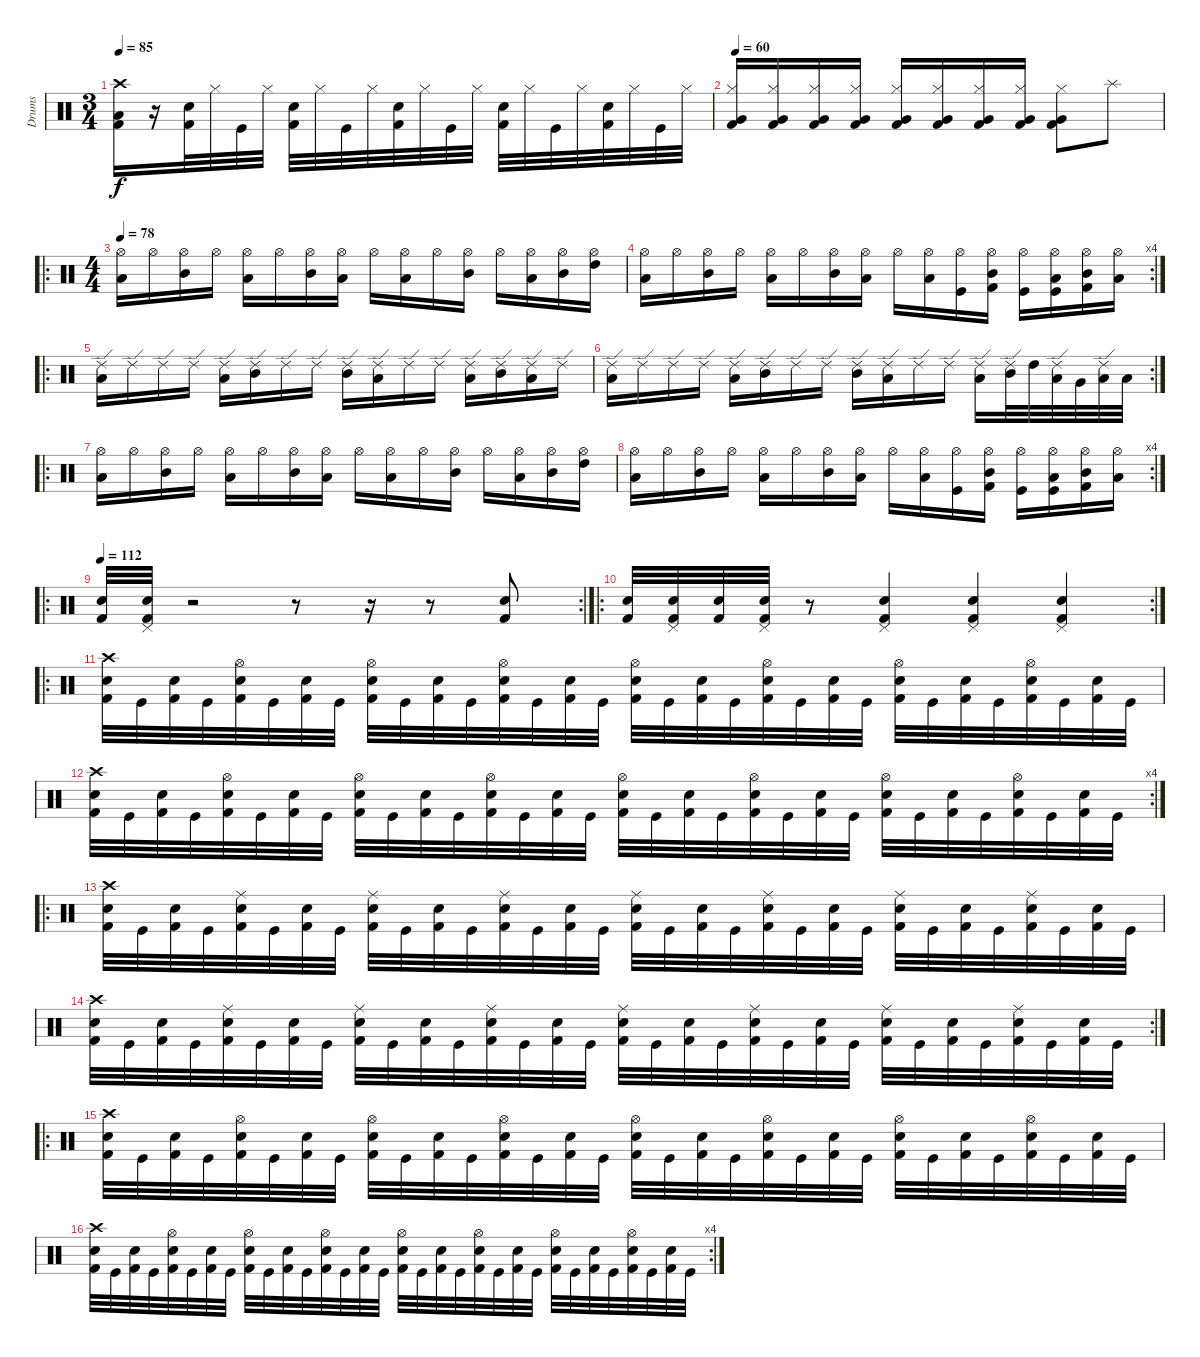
\track ("Drums" "Drums") {instrument percussion}
\staff {score}
\articulation defaults
\ts (3 4)
\tempo 85
\clef neutral
\ks c
("Crash high (hit)" "Low Floor Tom (hit)" "Kick (hit) 2").16{dy f} r.16 ("Snare (hit) 2" "Kick (hit) 2").32 "Hi-Hat (closed)".32 "Kick (hit)".32 "Hi-Hat (closed)".32 ("Snare (hit) 2" "Kick (hit) 2").32 "Hi-Hat (closed)".32 "Kick (hit)".32 "Hi-Hat (closed)".32 ("Snare (hit) 2" "Kick (hit) 2").32 "Hi-Hat (closed)".32 "Kick (hit)".32 "Hi-Hat (closed)".32 ("Snare (hit) 2" "Kick (hit) 2").32 "Hi-Hat (closed)".32 "Kick (hit)".32 "Hi-Hat (closed)".32 ("Snare (hit) 2" "Kick (hit) 2").32 "Hi-Hat (closed)".32 "Kick (hit)".32 "Hi-Hat (closed)".32 |
\tempo 58
\tempo 60
("Kick (hit) 2" "Hi-Hat (closed)" "Very Low Tom (hit)").16 ("Kick (hit) 2" "Hi-Hat (closed)" "Very Low Tom (hit)").16 ("Kick (hit) 2" "Hi-Hat (closed)" "Very Low Tom (hit)").16 ("Kick (hit) 2" "Hi-Hat (closed)" "Very Low Tom (hit)").16 ("Kick (hit) 2" "Hi-Hat (closed)" "Very Low Tom (hit)").16 ("Kick (hit) 2" "Hi-Hat (closed)" "Very Low Tom (hit)").16 ("Kick (hit) 2" "Hi-Hat (closed)" "Very Low Tom (hit)").16 ("Kick (hit) 2" "Hi-Hat (closed)" "Very Low Tom (hit)").16 ("Kick (hit) 2" "Hi-Hat (closed)" "Very Low Tom (hit)").8 "Splash (hit)".8 |
\ro
\ts (4 4)
\tempo 78
("Hi-Hat (open)" "Low Floor Tom (hit)").16 "Hi-Hat (open)".16 ("Hi-Hat (open)" "Mid Tom (hit)").16 "Hi-Hat (open)".16 ("Hi-Hat (open)" "Low Floor Tom (hit)").16 "Hi-Hat (open)".16 ("Hi-Hat (open)" "Mid Tom (hit)").16 ("Hi-Hat (open)" "Low Floor Tom (hit)").16 "Hi-Hat (open)".16 ("Hi-Hat (open)" "Low Floor Tom (hit)").16 "Hi-Hat (open)".16 ("Hi-Hat (open)" "Mid Tom (hit)").16 "Hi-Hat (open)".16 ("Hi-Hat (open)" "Low Floor Tom (hit)").16 ("Hi-Hat (open)" "Mid Tom (hit)").16 ("Hi-Hat (open)" "High Tom (hit)").16 |
\rc 4
("Hi-Hat (open)" "Low Floor Tom (hit)").16 "Hi-Hat (open)".16 ("Hi-Hat (open)" "Mid Tom (hit)").16 "Hi-Hat (open)".16 ("Hi-Hat (open)" "Low Floor Tom (hit)").16 "Hi-Hat (open)".16 ("Hi-Hat (open)" "Mid Tom (hit)").16 ("Hi-Hat (open)" "Low Floor Tom (hit)").16 "Hi-Hat (open)".16 ("Hi-Hat (open)" "Low Floor Tom (hit)").16 ("Hi-Hat (open)" "Kick (hit)").16 ("Hi-Hat (open)" "Kick (hit) 2" "Mid Tom (hit)").16 ("Hi-Hat (open)" "Kick (hit)").16 ("Hi-Hat (open)" "Kick (hit)" "Low Floor Tom (hit)").16 ("Hi-Hat (open)" "Kick (hit) 2" "Mid Tom (hit)").16 ("Hi-Hat (open)" "Low Floor Tom (hit)").16 |
\ro
("Ride (edge) 2" "Low Floor Tom (hit)").16 "Ride (edge) 2".16 "Ride (edge) 2".16 "Ride (edge) 2".16 ("Ride (edge) 2" "Low Tom (hit)").16 ("Ride (edge) 2" "Mid Tom (hit)").16 "Ride (edge) 2".16 "Ride (edge) 2".16 ("Ride (edge) 2" "Mid Tom (hit)").16 ("Ride (edge) 2" "Low Floor Tom (hit)").16 "Ride (edge) 2".16 "Ride (edge) 2".16 ("Ride (edge) 2" "Low Floor Tom (hit)").16 ("Ride (edge) 2" "Mid Tom (hit)").16 ("Ride (edge) 2" "Low Floor Tom (hit)").16 "Ride (edge) 2".16 |
\rc 2
("Ride (edge) 2" "Low Floor Tom (hit)").16 "Ride (edge) 2".16 "Ride (edge) 2".16 "Ride (edge) 2".16 ("Ride (edge) 2" "Low Tom (hit)").16 ("Ride (edge) 2" "Mid Tom (hit)").16 "Ride (edge) 2".16 "Ride (edge) 2".16 ("Ride (edge) 2" "Mid Tom (hit)").16 ("Ride (edge) 2" "Low Floor Tom (hit)").16 "Ride (edge) 2".16 "Ride (edge) 2".16 ("Ride (edge) 2" "Low Floor Tom (hit)").16 ("Ride (edge) 2" "Mid Tom (hit)").32 "High Tom (hit)".32 ("Ride (edge) 2" "Low Tom (hit)").32 "Very Low Tom (hit)".32 ("Ride (edge) 2" "Low Floor Tom (hit)").32 "Low Floor Tom (hit)".32 |
\ro
("Hi-Hat (open)" "Low Floor Tom (hit)").16 "Hi-Hat (open)".16 ("Hi-Hat (open)" "Mid Tom (hit)").16 "Hi-Hat (open)".16 ("Hi-Hat (open)" "Low Floor Tom (hit)").16 "Hi-Hat (open)".16 ("Hi-Hat (open)" "Mid Tom (hit)").16 ("Hi-Hat (open)" "Low Floor Tom (hit)").16 "Hi-Hat (open)".16 ("Hi-Hat (open)" "Low Floor Tom (hit)").16 "Hi-Hat (open)".16 ("Hi-Hat (open)" "Mid Tom (hit)").16 "Hi-Hat (open)".16 ("Hi-Hat (open)" "Low Floor Tom (hit)").16 ("Hi-Hat (open)" "Mid Tom (hit)").16 ("Hi-Hat (open)" "High Tom (hit)").16 |
\rc 4
("Hi-Hat (open)" "Low Floor Tom (hit)").16 "Hi-Hat (open)".16 ("Hi-Hat (open)" "Mid Tom (hit)").16 "Hi-Hat (open)".16 ("Hi-Hat (open)" "Low Floor Tom (hit)").16 "Hi-Hat (open)".16 ("Hi-Hat (open)" "Mid Tom (hit)").16 ("Hi-Hat (open)" "Low Floor Tom (hit)").16 "Hi-Hat (open)".16 ("Hi-Hat (open)" "Low Floor Tom (hit)").16 ("Hi-Hat (open)" "Kick (hit)").16 ("Hi-Hat (open)" "Kick (hit) 2" "Mid Tom (hit)").16 ("Hi-Hat (open)" "Kick (hit)").16 ("Hi-Hat (open)" "Kick (hit)" "Low Floor Tom (hit)").16 ("Hi-Hat (open)" "Kick (hit) 2" "Mid Tom (hit)").16 ("Hi-Hat (open)" "Low Floor Tom (hit)").16 |
\ro
\rc 2
\tempo 112
("Kick (hit) 2" "Snare (hit) 2").32 ("Pedal Hi-Hat (hit)" "Kick (hit) 2" "Snare (hit) 2").32 r.2 r.8 r.16 r.8 ("Kick (hit) 2" "Snare (hit) 2").8 |
\ro
\rc 2
("Kick (hit) 2" "Snare (hit) 2").32 ("Pedal Hi-Hat (hit)" "Kick (hit) 2" "Snare (hit) 2").32 ("Kick (hit) 2" "Snare (hit) 2").32 ("Pedal Hi-Hat (hit)" "Kick (hit) 2" "Snare (hit) 2").32 r.8 ("Pedal Hi-Hat (hit)" "Kick (hit) 2" "Snare (hit) 2").4 ("Pedal Hi-Hat (hit)" "Kick (hit) 2" "Snare (hit) 2").4 ("Pedal Hi-Hat (hit)" "Kick (hit) 2" "Snare (hit) 2").4 |
\ro
("Crash high (hit)" "Kick (hit) 2" "Snare (hit) 2").32 "Kick (hit)".32 ("Kick (hit) 2" "Electric Snare (hit)").32 "Kick (hit)".32 ("Hi-Hat (open)" "Kick (hit) 2" "Snare (hit) 2").32 "Kick (hit)".32 ("Kick (hit) 2" "Electric Snare (hit)").32 "Kick (hit)".32 ("Hi-Hat (open)" "Kick (hit) 2" "Snare (hit) 2").32 "Kick (hit)".32 ("Kick (hit) 2" "Electric Snare (hit)").32 "Kick (hit)".32 ("Hi-Hat (open)" "Kick (hit) 2" "Snare (hit) 2").32 "Kick (hit)".32 ("Kick (hit) 2" "Electric Snare (hit)").32 "Kick (hit)".32 ("Hi-Hat (open)" "Kick (hit) 2" "Snare (hit) 2").32 "Kick (hit)".32 ("Kick (hit) 2" "Electric Snare (hit)").32 "Kick (hit)".32 ("Hi-Hat (open)" "Kick (hit) 2" "Snare (hit) 2").32 "Kick (hit)".32 ("Kick (hit) 2" "Electric Snare (hit)").32 "Kick (hit)".32 ("Hi-Hat (open)" "Kick (hit) 2" "Snare (hit) 2").32 "Kick (hit)".32 ("Kick (hit) 2" "Electric Snare (hit)").32 "Kick (hit)".32 ("Hi-Hat (open)" "Kick (hit) 2" "Snare (hit) 2").32 "Kick (hit)".32 ("Kick (hit) 2" "Electric Snare (hit)").32 "Kick (hit)".32 |
\rc 4
("Crash high (hit)" "Kick (hit) 2" "Snare (hit) 2").32 "Kick (hit)".32 ("Kick (hit) 2" "Electric Snare (hit)").32 "Kick (hit)".32 ("Hi-Hat (open)" "Kick (hit) 2" "Snare (hit) 2").32 "Kick (hit)".32 ("Kick (hit) 2" "Electric Snare (hit)").32 "Kick (hit)".32 ("Hi-Hat (open)" "Kick (hit) 2" "Snare (hit) 2").32 "Kick (hit)".32 ("Kick (hit) 2" "Electric Snare (hit)").32 "Kick (hit)".32 ("Hi-Hat (open)" "Kick (hit) 2" "Snare (hit) 2").32 "Kick (hit)".32 ("Kick (hit) 2" "Electric Snare (hit)").32 "Kick (hit)".32 ("Hi-Hat (open)" "Kick (hit) 2" "Snare (hit) 2").32 "Kick (hit)".32 ("Kick (hit) 2" "Electric Snare (hit)").32 "Kick (hit)".32 ("Hi-Hat (open)" "Kick (hit) 2" "Snare (hit) 2").32 "Kick (hit)".32 ("Kick (hit) 2" "Electric Snare (hit)").32 "Kick (hit)".32 ("Hi-Hat (open)" "Kick (hit) 2" "Snare (hit) 2").32 "Kick (hit)".32 ("Kick (hit) 2" "Electric Snare (hit)").32 "Kick (hit)".32 ("Hi-Hat (open)" "Kick (hit) 2" "Snare (hit) 2").32 "Kick (hit)".32 ("Kick (hit) 2" "Electric Snare (hit)").32 "Kick (hit)".32 |
\ro
("Crash high (hit)" "Kick (hit) 2" "Snare (hit) 2").32 "Kick (hit)".32 ("Kick (hit) 2" "Electric Snare (hit)").32 "Kick (hit)".32 ("Ride (middle)" "Kick (hit) 2" "Snare (hit) 2").32 "Kick (hit)".32 ("Kick (hit) 2" "Electric Snare (hit)").32 "Kick (hit)".32 ("Ride (middle)" "Kick (hit) 2" "Snare (hit) 2").32 "Kick (hit)".32 ("Kick (hit) 2" "Electric Snare (hit)").32 "Kick (hit)".32 ("Ride (middle)" "Kick (hit) 2" "Snare (hit) 2").32 "Kick (hit)".32 ("Kick (hit) 2" "Electric Snare (hit)").32 "Kick (hit)".32 ("Ride (middle)" "Kick (hit) 2" "Snare (hit) 2").32 "Kick (hit)".32 ("Kick (hit) 2" "Electric Snare (hit)").32 "Kick (hit)".32 ("Ride (middle)" "Kick (hit) 2" "Snare (hit) 2").32 "Kick (hit)".32 ("Kick (hit) 2" "Electric Snare (hit)").32 "Kick (hit)".32 ("Ride (middle)" "Kick (hit) 2" "Snare (hit) 2").32 "Kick (hit)".32 ("Kick (hit) 2" "Electric Snare (hit)").32 "Kick (hit)".32 ("Ride (middle)" "Kick (hit) 2" "Snare (hit) 2").32 "Kick (hit)".32 ("Kick (hit) 2" "Electric Snare (hit)").32 "Kick (hit)".32 |
\rc 2
("Crash high (hit)" "Kick (hit) 2" "Snare (hit) 2").32 "Kick (hit)".32 ("Kick (hit) 2" "Electric Snare (hit)").32 "Kick (hit)".32 ("Ride (middle)" "Kick (hit) 2" "Snare (hit) 2").32 "Kick (hit)".32 ("Kick (hit) 2" "Electric Snare (hit)").32 "Kick (hit)".32 ("Ride (middle)" "Kick (hit) 2" "Snare (hit) 2").32 "Kick (hit)".32 ("Kick (hit) 2" "Electric Snare (hit)").32 "Kick (hit)".32 ("Ride (middle)" "Kick (hit) 2" "Snare (hit) 2").32 "Kick (hit)".32 ("Kick (hit) 2" "Electric Snare (hit)").32 "Kick (hit)".32 ("Ride (middle)" "Kick (hit) 2" "Snare (hit) 2").32 "Kick (hit)".32 ("Kick (hit) 2" "Electric Snare (hit)").32 "Kick (hit)".32 ("Ride (middle)" "Kick (hit) 2" "Snare (hit) 2").32 "Kick (hit)".32 ("Kick (hit) 2" "Electric Snare (hit)").32 "Kick (hit)".32 ("Ride (middle)" "Kick (hit) 2" "Snare (hit) 2").32 "Kick (hit)".32 ("Kick (hit) 2" "Electric Snare (hit)").32 "Kick (hit)".32 ("Ride (middle)" "Kick (hit) 2" "Snare (hit) 2").32 "Kick (hit)".32 ("Kick (hit) 2" "Electric Snare (hit)").32 "Kick (hit)".32 |
\ro
("Crash high (hit)" "Kick (hit) 2" "Snare (hit) 2").32 "Kick (hit)".32 ("Kick (hit) 2" "Electric Snare (hit)").32 "Kick (hit)".32 ("Hi-Hat (open)" "Kick (hit) 2" "Snare (hit) 2").32 "Kick (hit)".32 ("Kick (hit) 2" "Electric Snare (hit)").32 "Kick (hit)".32 ("Hi-Hat (open)" "Kick (hit) 2" "Snare (hit) 2").32 "Kick (hit)".32 ("Kick (hit) 2" "Electric Snare (hit)").32 "Kick (hit)".32 ("Hi-Hat (open)" "Kick (hit) 2" "Snare (hit) 2").32 "Kick (hit)".32 ("Kick (hit) 2" "Electric Snare (hit)").32 "Kick (hit)".32 ("Hi-Hat (open)" "Kick (hit) 2" "Snare (hit) 2").32 "Kick (hit)".32 ("Kick (hit) 2" "Electric Snare (hit)").32 "Kick (hit)".32 ("Hi-Hat (open)" "Kick (hit) 2" "Snare (hit) 2").32 "Kick (hit)".32 ("Kick (hit) 2" "Electric Snare (hit)").32 "Kick (hit)".32 ("Hi-Hat (open)" "Kick (hit) 2" "Snare (hit) 2").32 "Kick (hit)".32 ("Kick (hit) 2" "Electric Snare (hit)").32 "Kick (hit)".32 ("Hi-Hat (open)" "Kick (hit) 2" "Snare (hit) 2").32 "Kick (hit)".32 ("Kick (hit) 2" "Electric Snare (hit)").32 "Kick (hit)".32 |
\rc 4
("Crash high (hit)" "Kick (hit) 2" "Snare (hit) 2").32 "Kick (hit)".32 ("Kick (hit) 2" "Electric Snare (hit)").32 "Kick (hit)".32 ("Hi-Hat (open)" "Kick (hit) 2" "Snare (hit) 2").32 "Kick (hit)".32 ("Kick (hit) 2" "Electric Snare (hit)").32 "Kick (hit)".32 ("Hi-Hat (open)" "Kick (hit) 2" "Snare (hit) 2").32 "Kick (hit)".32 ("Kick (hit) 2" "Electric Snare (hit)").32 "Kick (hit)".32 ("Hi-Hat (open)" "Kick (hit) 2" "Snare (hit) 2").32 "Kick (hit)".32 ("Kick (hit) 2" "Electric Snare (hit)").32 "Kick (hit)".32 ("Hi-Hat (open)" "Kick (hit) 2" "Snare (hit) 2").32 "Kick (hit)".32 ("Kick (hit) 2" "Electric Snare (hit)").32 "Kick (hit)".32 ("Hi-Hat (open)" "Kick (hit) 2" "Snare (hit) 2").32 "Kick (hit)".32 ("Kick (hit) 2" "Electric Snare (hit)").32 "Kick (hit)".32 ("Hi-Hat (open)" "Kick (hit) 2" "Snare (hit) 2").32 "Kick (hit)".32 ("Kick (hit) 2" "Electric Snare (hit)").32 "Kick (hit)".32 ("Hi-Hat (open)" "Kick (hit) 2" "Snare (hit) 2").32 "Kick (hit)".32 ("Kick (hit) 2" "Electric Snare (hit)").32 "Kick (hit)".32
